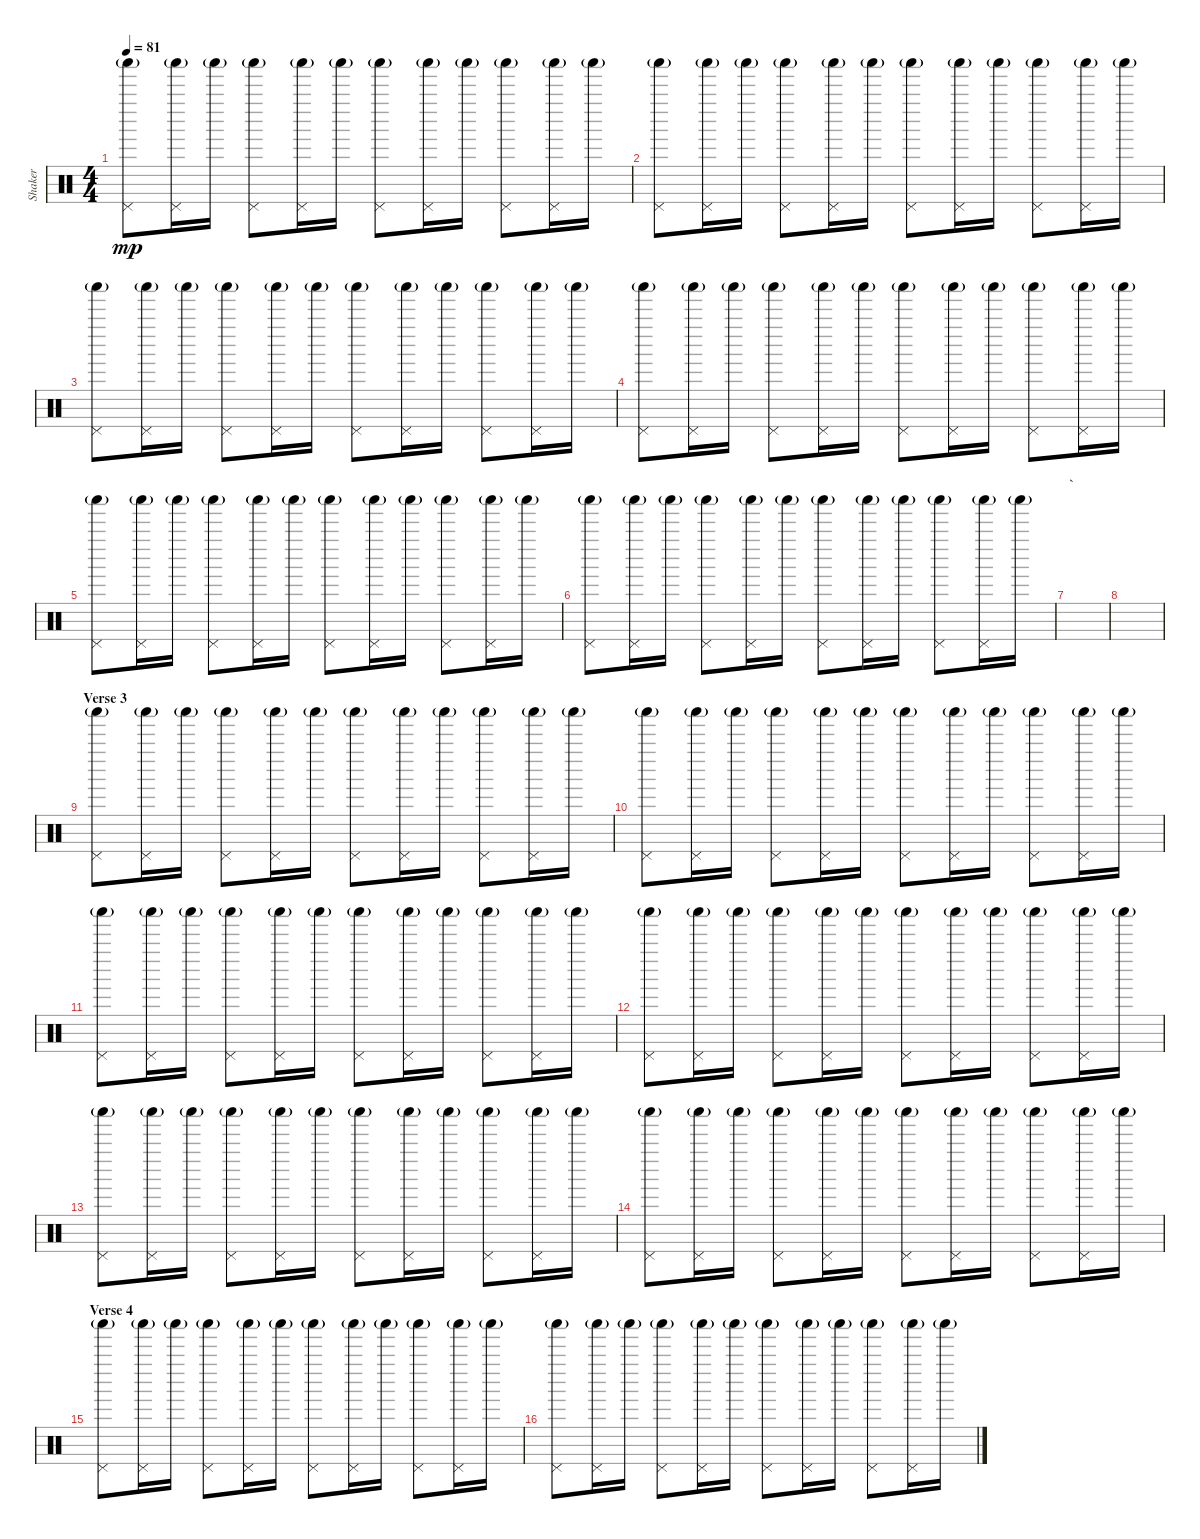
\track ("Shaker" "Shaker") {instrument percussion}
\staff {score}
\articulation defaults
\ts (4 4)
\tempo 81
\clef neutral
\ks c
("Pedal Hi-Hat (hit)" "Shaker (hit)"{g}).8{dy mp} ("Pedal Hi-Hat (hit)" "Shaker (hit)"{g}).16 "Shaker (hit)"{g}.16 ("Pedal Hi-Hat (hit)" "Shaker (hit)"{g}).8 ("Pedal Hi-Hat (hit)" "Shaker (hit)"{g}).16 "Shaker (hit)"{g}.16 ("Pedal Hi-Hat (hit)" "Shaker (hit)"{g}).8 ("Pedal Hi-Hat (hit)" "Shaker (hit)"{g}).16 "Shaker (hit)"{g}.16 ("Pedal Hi-Hat (hit)" "Shaker (hit)"{g}).8 ("Pedal Hi-Hat (hit)" "Shaker (hit)"{g}).16 "Shaker (hit)"{g}.16 |
("Pedal Hi-Hat (hit)" "Shaker (hit)"{g}).8 ("Pedal Hi-Hat (hit)" "Shaker (hit)"{g}).16 "Shaker (hit)"{g}.16 ("Pedal Hi-Hat (hit)" "Shaker (hit)"{g}).8 ("Pedal Hi-Hat (hit)" "Shaker (hit)"{g}).16 "Shaker (hit)"{g}.16 ("Pedal Hi-Hat (hit)" "Shaker (hit)"{g}).8 ("Pedal Hi-Hat (hit)" "Shaker (hit)"{g}).16 "Shaker (hit)"{g}.16 ("Pedal Hi-Hat (hit)" "Shaker (hit)"{g}).8 ("Pedal Hi-Hat (hit)" "Shaker (hit)"{g}).16 "Shaker (hit)"{g}.16 |
("Pedal Hi-Hat (hit)" "Shaker (hit)"{g}).8 ("Pedal Hi-Hat (hit)" "Shaker (hit)"{g}).16 "Shaker (hit)"{g}.16 ("Pedal Hi-Hat (hit)" "Shaker (hit)"{g}).8 ("Pedal Hi-Hat (hit)" "Shaker (hit)"{g}).16 "Shaker (hit)"{g}.16 ("Pedal Hi-Hat (hit)" "Shaker (hit)"{g}).8 ("Pedal Hi-Hat (hit)" "Shaker (hit)"{g}).16 "Shaker (hit)"{g}.16 ("Pedal Hi-Hat (hit)" "Shaker (hit)"{g}).8 ("Pedal Hi-Hat (hit)" "Shaker (hit)"{g}).16 "Shaker (hit)"{g}.16 |
("Pedal Hi-Hat (hit)" "Shaker (hit)"{g}).8 ("Pedal Hi-Hat (hit)" "Shaker (hit)"{g}).16 "Shaker (hit)"{g}.16 ("Pedal Hi-Hat (hit)" "Shaker (hit)"{g}).8 ("Pedal Hi-Hat (hit)" "Shaker (hit)"{g}).16 "Shaker (hit)"{g}.16 ("Pedal Hi-Hat (hit)" "Shaker (hit)"{g}).8 ("Pedal Hi-Hat (hit)" "Shaker (hit)"{g}).16 "Shaker (hit)"{g}.16 ("Pedal Hi-Hat (hit)" "Shaker (hit)"{g}).8 ("Pedal Hi-Hat (hit)" "Shaker (hit)"{g}).16 "Shaker (hit)"{g}.16 |
("Pedal Hi-Hat (hit)" "Shaker (hit)"{g}).8 ("Pedal Hi-Hat (hit)" "Shaker (hit)"{g}).16 "Shaker (hit)"{g}.16 ("Pedal Hi-Hat (hit)" "Shaker (hit)"{g}).8 ("Pedal Hi-Hat (hit)" "Shaker (hit)"{g}).16 "Shaker (hit)"{g}.16 ("Pedal Hi-Hat (hit)" "Shaker (hit)"{g}).8 ("Pedal Hi-Hat (hit)" "Shaker (hit)"{g}).16 "Shaker (hit)"{g}.16 ("Pedal Hi-Hat (hit)" "Shaker (hit)"{g}).8 ("Pedal Hi-Hat (hit)" "Shaker (hit)"{g}).16 "Shaker (hit)"{g}.16 |
("Pedal Hi-Hat (hit)" "Shaker (hit)"{g}).8 ("Pedal Hi-Hat (hit)" "Shaker (hit)"{g}).16 "Shaker (hit)"{g}.16 ("Pedal Hi-Hat (hit)" "Shaker (hit)"{g}).8 ("Pedal Hi-Hat (hit)" "Shaker (hit)"{g}).16 "Shaker (hit)"{g}.16 ("Pedal Hi-Hat (hit)" "Shaker (hit)"{g}).8 ("Pedal Hi-Hat (hit)" "Shaker (hit)"{g}).16 "Shaker (hit)"{g}.16 ("Pedal Hi-Hat (hit)" "Shaker (hit)"{g}).8 ("Pedal Hi-Hat (hit)" "Shaker (hit)"{g}).16 "Shaker (hit)"{g}.16 |
\section ("" "`")
|
|
\section ("" "Verse 3")
("Pedal Hi-Hat (hit)" "Shaker (hit)"{g}).8 ("Pedal Hi-Hat (hit)" "Shaker (hit)"{g}).16 "Shaker (hit)"{g}.16 ("Pedal Hi-Hat (hit)" "Shaker (hit)"{g}).8 ("Pedal Hi-Hat (hit)" "Shaker (hit)"{g}).16 "Shaker (hit)"{g}.16 ("Pedal Hi-Hat (hit)" "Shaker (hit)"{g}).8 ("Pedal Hi-Hat (hit)" "Shaker (hit)"{g}).16 "Shaker (hit)"{g}.16 ("Pedal Hi-Hat (hit)" "Shaker (hit)"{g}).8 ("Pedal Hi-Hat (hit)" "Shaker (hit)"{g}).16 "Shaker (hit)"{g}.16 |
("Pedal Hi-Hat (hit)" "Shaker (hit)"{g}).8 ("Pedal Hi-Hat (hit)" "Shaker (hit)"{g}).16 "Shaker (hit)"{g}.16 ("Pedal Hi-Hat (hit)" "Shaker (hit)"{g}).8 ("Pedal Hi-Hat (hit)" "Shaker (hit)"{g}).16 "Shaker (hit)"{g}.16 ("Pedal Hi-Hat (hit)" "Shaker (hit)"{g}).8 ("Pedal Hi-Hat (hit)" "Shaker (hit)"{g}).16 "Shaker (hit)"{g}.16 ("Pedal Hi-Hat (hit)" "Shaker (hit)"{g}).8 ("Pedal Hi-Hat (hit)" "Shaker (hit)"{g}).16 "Shaker (hit)"{g}.16 |
("Pedal Hi-Hat (hit)" "Shaker (hit)"{g}).8 ("Pedal Hi-Hat (hit)" "Shaker (hit)"{g}).16 "Shaker (hit)"{g}.16 ("Pedal Hi-Hat (hit)" "Shaker (hit)"{g}).8 ("Pedal Hi-Hat (hit)" "Shaker (hit)"{g}).16 "Shaker (hit)"{g}.16 ("Pedal Hi-Hat (hit)" "Shaker (hit)"{g}).8 ("Pedal Hi-Hat (hit)" "Shaker (hit)"{g}).16 "Shaker (hit)"{g}.16 ("Pedal Hi-Hat (hit)" "Shaker (hit)"{g}).8 ("Pedal Hi-Hat (hit)" "Shaker (hit)"{g}).16 "Shaker (hit)"{g}.16 |
("Pedal Hi-Hat (hit)" "Shaker (hit)"{g}).8 ("Pedal Hi-Hat (hit)" "Shaker (hit)"{g}).16 "Shaker (hit)"{g}.16 ("Pedal Hi-Hat (hit)" "Shaker (hit)"{g}).8 ("Pedal Hi-Hat (hit)" "Shaker (hit)"{g}).16 "Shaker (hit)"{g}.16 ("Pedal Hi-Hat (hit)" "Shaker (hit)"{g}).8 ("Pedal Hi-Hat (hit)" "Shaker (hit)"{g}).16 "Shaker (hit)"{g}.16 ("Pedal Hi-Hat (hit)" "Shaker (hit)"{g}).8 ("Pedal Hi-Hat (hit)" "Shaker (hit)"{g}).16 "Shaker (hit)"{g}.16 |
("Pedal Hi-Hat (hit)" "Shaker (hit)"{g}).8 ("Pedal Hi-Hat (hit)" "Shaker (hit)"{g}).16 "Shaker (hit)"{g}.16 ("Pedal Hi-Hat (hit)" "Shaker (hit)"{g}).8 ("Pedal Hi-Hat (hit)" "Shaker (hit)"{g}).16 "Shaker (hit)"{g}.16 ("Pedal Hi-Hat (hit)" "Shaker (hit)"{g}).8 ("Pedal Hi-Hat (hit)" "Shaker (hit)"{g}).16 "Shaker (hit)"{g}.16 ("Pedal Hi-Hat (hit)" "Shaker (hit)"{g}).8 ("Pedal Hi-Hat (hit)" "Shaker (hit)"{g}).16 "Shaker (hit)"{g}.16 |
("Pedal Hi-Hat (hit)" "Shaker (hit)"{g}).8 ("Pedal Hi-Hat (hit)" "Shaker (hit)"{g}).16 "Shaker (hit)"{g}.16 ("Pedal Hi-Hat (hit)" "Shaker (hit)"{g}).8 ("Pedal Hi-Hat (hit)" "Shaker (hit)"{g}).16 "Shaker (hit)"{g}.16 ("Pedal Hi-Hat (hit)" "Shaker (hit)"{g}).8 ("Pedal Hi-Hat (hit)" "Shaker (hit)"{g}).16 "Shaker (hit)"{g}.16 ("Pedal Hi-Hat (hit)" "Shaker (hit)"{g}).8 ("Pedal Hi-Hat (hit)" "Shaker (hit)"{g}).16 "Shaker (hit)"{g}.16 |
\section ("" "Verse 4")
("Pedal Hi-Hat (hit)" "Shaker (hit)"{g}).8 ("Pedal Hi-Hat (hit)" "Shaker (hit)"{g}).16 "Shaker (hit)"{g}.16 ("Pedal Hi-Hat (hit)" "Shaker (hit)"{g}).8 ("Pedal Hi-Hat (hit)" "Shaker (hit)"{g}).16 "Shaker (hit)"{g}.16 ("Pedal Hi-Hat (hit)" "Shaker (hit)"{g}).8 ("Pedal Hi-Hat (hit)" "Shaker (hit)"{g}).16 "Shaker (hit)"{g}.16 ("Pedal Hi-Hat (hit)" "Shaker (hit)"{g}).8 ("Pedal Hi-Hat (hit)" "Shaker (hit)"{g}).16 "Shaker (hit)"{g}.16 |
("Pedal Hi-Hat (hit)" "Shaker (hit)"{g}).8 ("Pedal Hi-Hat (hit)" "Shaker (hit)"{g}).16 "Shaker (hit)"{g}.16 ("Pedal Hi-Hat (hit)" "Shaker (hit)"{g}).8 ("Pedal Hi-Hat (hit)" "Shaker (hit)"{g}).16 "Shaker (hit)"{g}.16 ("Pedal Hi-Hat (hit)" "Shaker (hit)"{g}).8 ("Pedal Hi-Hat (hit)" "Shaker (hit)"{g}).16 "Shaker (hit)"{g}.16 ("Pedal Hi-Hat (hit)" "Shaker (hit)"{g}).8 ("Pedal Hi-Hat (hit)" "Shaker (hit)"{g}).16 "Shaker (hit)"{g}.16
